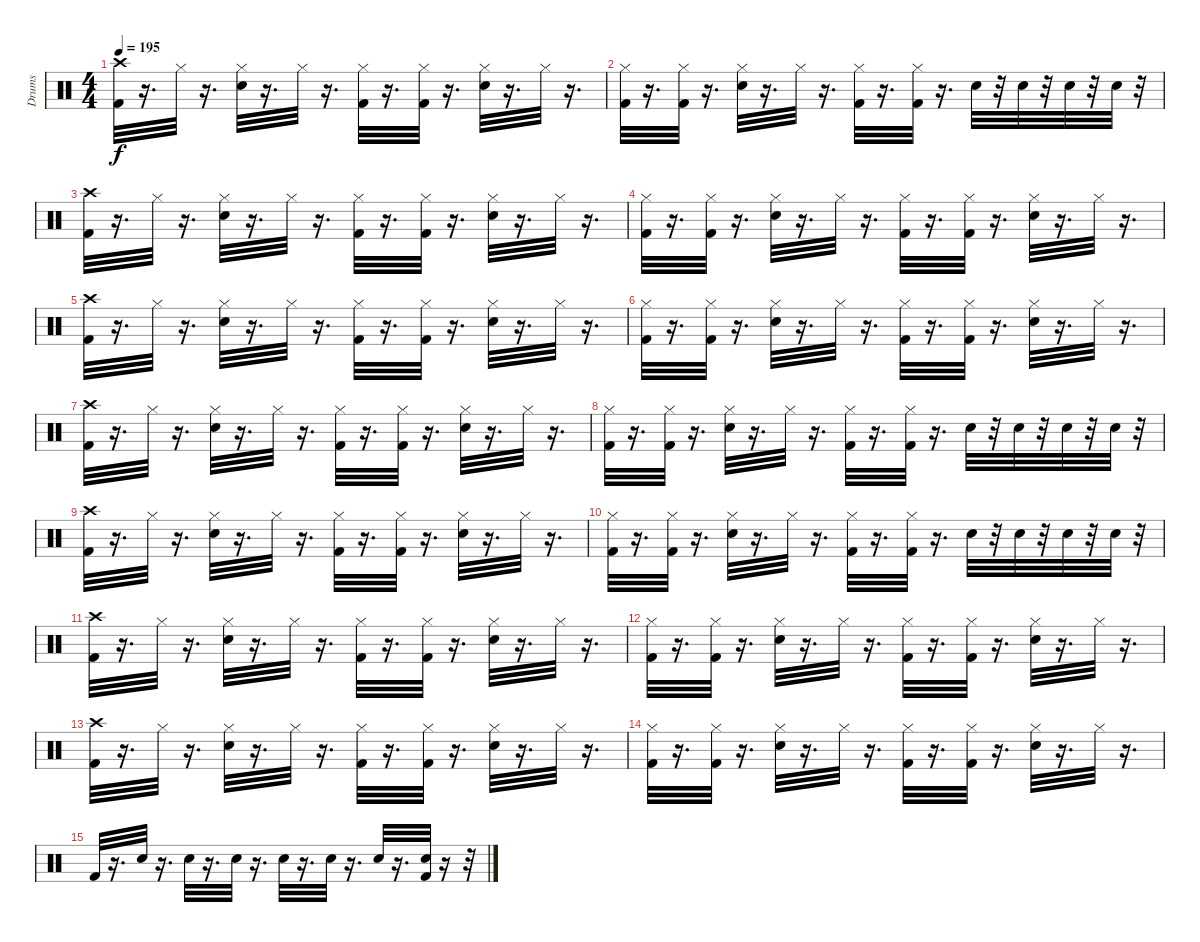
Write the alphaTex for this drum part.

\track ("Drums" "Drums") {instrument percussion}
\staff {score}
\articulation defaults
\ts (4 4)
\tempo 195
\clef neutral
\ks c
("Crash high (hit)" "Kick (hit) 2").32{dy f} r.16{d} "Hi-Hat (closed)".32 r.16{d} ("Hi-Hat (closed)" "Snare (hit) 2").32 r.16{d} "Hi-Hat (closed)".32 r.16{d} ("Hi-Hat (closed)" "Kick (hit) 2").32 r.16{d} ("Hi-Hat (closed)" "Kick (hit) 2").32 r.16{d} ("Hi-Hat (closed)" "Snare (hit) 2").32 r.16{d} "Hi-Hat (closed)".32 r.16{d} |
("Kick (hit) 2" "Hi-Hat (closed)").32 r.16{d} ("Kick (hit) 2" "Hi-Hat (closed)").32 r.16{d} ("Snare (hit) 2" "Hi-Hat (closed)").32 r.16{d} "Hi-Hat (closed)".32 r.16{d} ("Kick (hit) 2" "Hi-Hat (closed)").32 r.16{d} ("Kick (hit) 2" "Hi-Hat (closed)").32 r.16{d} "Snare (hit) 2".32 r.32 "Snare (hit) 2".32 r.32 "Snare (hit) 2".32 r.32 "Snare (hit) 2".32 r.32 |
("Crash high (hit)" "Kick (hit) 2").32 r.16{d} "Hi-Hat (closed)".32 r.16{d} ("Hi-Hat (closed)" "Snare (hit) 2").32 r.16{d} "Hi-Hat (closed)".32 r.16{d} ("Hi-Hat (closed)" "Kick (hit) 2").32 r.16{d} ("Hi-Hat (closed)" "Kick (hit) 2").32 r.16{d} ("Hi-Hat (closed)" "Snare (hit) 2").32 r.16{d} "Hi-Hat (closed)".32 r.16{d} |
("Kick (hit) 2" "Hi-Hat (closed)").32 r.16{d} ("Kick (hit) 2" "Hi-Hat (closed)").32 r.16{d} ("Snare (hit) 2" "Hi-Hat (closed)").32 r.16{d} "Hi-Hat (closed)".32 r.16{d} ("Kick (hit) 2" "Hi-Hat (closed)").32 r.16{d} ("Kick (hit) 2" "Hi-Hat (closed)").32 r.16{d} ("Snare (hit) 2" "Hi-Hat (closed)").32 r.16{d} "Hi-Hat (closed)".32 r.16{d} |
("Crash high (hit)" "Kick (hit) 2").32 r.16{d} "Hi-Hat (closed)".32 r.16{d} ("Hi-Hat (closed)" "Snare (hit) 2").32 r.16{d} "Hi-Hat (closed)".32 r.16{d} ("Hi-Hat (closed)" "Kick (hit) 2").32 r.16{d} ("Hi-Hat (closed)" "Kick (hit) 2").32 r.16{d} ("Hi-Hat (closed)" "Snare (hit) 2").32 r.16{d} "Hi-Hat (closed)".32 r.16{d} |
("Kick (hit) 2" "Hi-Hat (closed)").32 r.16{d} ("Kick (hit) 2" "Hi-Hat (closed)").32 r.16{d} ("Snare (hit) 2" "Hi-Hat (closed)").32 r.16{d} "Hi-Hat (closed)".32 r.16{d} ("Kick (hit) 2" "Hi-Hat (closed)").32 r.16{d} ("Kick (hit) 2" "Hi-Hat (closed)").32 r.16{d} ("Snare (hit) 2" "Hi-Hat (closed)").32 r.16{d} "Hi-Hat (closed)".32 r.16{d} |
("Crash high (hit)" "Kick (hit) 2").32 r.16{d} "Hi-Hat (closed)".32 r.16{d} ("Hi-Hat (closed)" "Snare (hit) 2").32 r.16{d} "Hi-Hat (closed)".32 r.16{d} ("Hi-Hat (closed)" "Kick (hit) 2").32 r.16{d} ("Hi-Hat (closed)" "Kick (hit) 2").32 r.16{d} ("Hi-Hat (closed)" "Snare (hit) 2").32 r.16{d} "Hi-Hat (closed)".32 r.16{d} |
("Kick (hit) 2" "Hi-Hat (closed)").32 r.16{d} ("Kick (hit) 2" "Hi-Hat (closed)").32 r.16{d} ("Snare (hit) 2" "Hi-Hat (closed)").32 r.16{d} "Hi-Hat (closed)".32 r.16{d} ("Kick (hit) 2" "Hi-Hat (closed)").32 r.16{d} ("Kick (hit) 2" "Hi-Hat (closed)").32 r.16{d} "Snare (hit) 2".32 r.32 "Snare (hit) 2".32 r.32 "Snare (hit) 2".32 r.32 "Snare (hit) 2".32 r.32 |
("Crash high (hit)" "Kick (hit) 2").32 r.16{d} "Hi-Hat (closed)".32 r.16{d} ("Hi-Hat (closed)" "Snare (hit) 2").32 r.16{d} "Hi-Hat (closed)".32 r.16{d} ("Hi-Hat (closed)" "Kick (hit) 2").32 r.16{d} ("Hi-Hat (closed)" "Kick (hit) 2").32 r.16{d} ("Hi-Hat (closed)" "Snare (hit) 2").32 r.16{d} "Hi-Hat (closed)".32 r.16{d} |
("Kick (hit) 2" "Hi-Hat (closed)").32 r.16{d} ("Kick (hit) 2" "Hi-Hat (closed)").32 r.16{d} ("Snare (hit) 2" "Hi-Hat (closed)").32 r.16{d} "Hi-Hat (closed)".32 r.16{d} ("Kick (hit) 2" "Hi-Hat (closed)").32 r.16{d} ("Kick (hit) 2" "Hi-Hat (closed)").32 r.16{d} "Snare (hit) 2".32 r.32 "Snare (hit) 2".32 r.32 "Snare (hit) 2".32 r.32 "Snare (hit) 2".32 r.32 |
("Crash high (hit)" "Kick (hit) 2").32 r.16{d} "Hi-Hat (closed)".32 r.16{d} ("Hi-Hat (closed)" "Snare (hit) 2").32 r.16{d} "Hi-Hat (closed)".32 r.16{d} ("Hi-Hat (closed)" "Kick (hit) 2").32 r.16{d} ("Hi-Hat (closed)" "Kick (hit) 2").32 r.16{d} ("Hi-Hat (closed)" "Snare (hit) 2").32 r.16{d} "Hi-Hat (closed)".32 r.16{d} |
("Kick (hit) 2" "Hi-Hat (closed)").32 r.16{d} ("Kick (hit) 2" "Hi-Hat (closed)").32 r.16{d} ("Snare (hit) 2" "Hi-Hat (closed)").32 r.16{d} "Hi-Hat (closed)".32 r.16{d} ("Kick (hit) 2" "Hi-Hat (closed)").32 r.16{d} ("Kick (hit) 2" "Hi-Hat (closed)").32 r.16{d} ("Snare (hit) 2" "Hi-Hat (closed)").32 r.16{d} "Hi-Hat (closed)".32 r.16{d} |
("Crash high (hit)" "Kick (hit) 2").32 r.16{d} "Hi-Hat (closed)".32 r.16{d} ("Hi-Hat (closed)" "Snare (hit) 2").32 r.16{d} "Hi-Hat (closed)".32 r.16{d} ("Hi-Hat (closed)" "Kick (hit) 2").32 r.16{d} ("Hi-Hat (closed)" "Kick (hit) 2").32 r.16{d} ("Hi-Hat (closed)" "Snare (hit) 2").32 r.16{d} "Hi-Hat (closed)".32 r.16{d} |
("Kick (hit) 2" "Hi-Hat (closed)").32 r.16{d} ("Kick (hit) 2" "Hi-Hat (closed)").32 r.16{d} ("Snare (hit) 2" "Hi-Hat (closed)").32 r.16{d} "Hi-Hat (closed)".32 r.16{d} ("Kick (hit) 2" "Hi-Hat (closed)").32 r.16{d} ("Kick (hit) 2" "Hi-Hat (closed)").32 r.16{d} ("Snare (hit) 2" "Hi-Hat (closed)").32 r.16{d} "Hi-Hat (closed)".32 r.16{d} |
"Kick (hit) 2".32 r.16{d} "Snare (hit) 2".32 r.16{d} "Snare (hit) 2".32 r.16{d} "Snare (hit) 2".32 r.16{d} "Snare (hit) 2".32 r.16{d} "Snare (hit) 2".32 r.16{d} "Snare (hit) 2".32 r.16{d} ("Kick (hit) 2" "Snare (hit) 2").32 r.16 r.32
